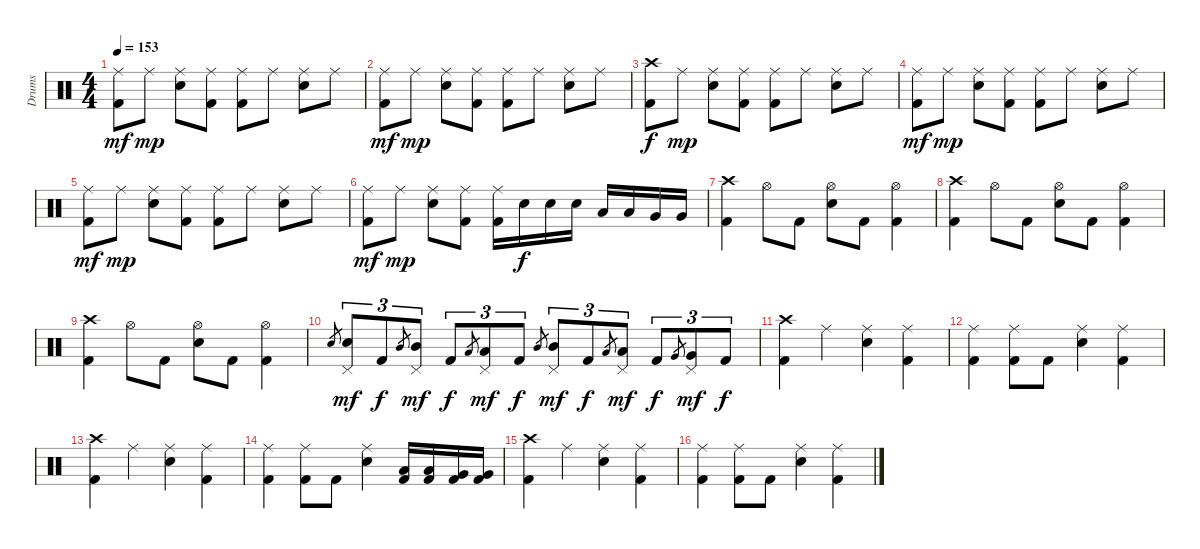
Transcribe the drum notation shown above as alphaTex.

\track ("Drums" "Drums") {instrument percussion}
\staff {score}
\articulation defaults
\ts (4 4)
\tempo 153
\clef neutral
\ks c
("Ride (middle)" "Kick (hit) 2").8{dy mf} "Ride (middle)".8{dy mp} ("Ride (middle)" "Electric Snare (hit)").8 ("Ride (middle)" "Kick (hit) 2").8 ("Ride (middle)" "Kick (hit) 2").8 "Ride (middle)".8 ("Ride (middle)" "Electric Snare (hit)").8 "Ride (middle)".8 |
("Ride (middle)" "Kick (hit) 2").8{dy mf} "Ride (middle)".8{dy mp} ("Ride (middle)" "Electric Snare (hit)").8 ("Ride (middle)" "Kick (hit) 2").8 ("Ride (middle)" "Kick (hit) 2").8 "Ride (middle)".8 ("Ride (middle)" "Electric Snare (hit)").8 "Ride (middle)".8 |
("Crash high (hit)" "Kick (hit) 2").8{dy f} "Ride (middle)".8{dy mp} ("Ride (middle)" "Electric Snare (hit)").8 ("Ride (middle)" "Kick (hit) 2").8 ("Ride (middle)" "Kick (hit) 2").8 "Ride (middle)".8 ("Ride (middle)" "Electric Snare (hit)").8 "Ride (middle)".8 |
("Ride (middle)" "Kick (hit) 2").8{dy mf} "Ride (middle)".8{dy mp} ("Ride (middle)" "Electric Snare (hit)").8 ("Ride (middle)" "Kick (hit) 2").8 ("Ride (middle)" "Kick (hit) 2").8 "Ride (middle)".8 ("Ride (middle)" "Electric Snare (hit)").8 "Ride (middle)".8 |
("Ride (middle)" "Kick (hit) 2").8{dy mf} "Ride (middle)".8{dy mp} ("Ride (middle)" "Electric Snare (hit)").8 ("Ride (middle)" "Kick (hit) 2").8 ("Ride (middle)" "Kick (hit) 2").8 "Ride (middle)".8 ("Ride (middle)" "Electric Snare (hit)").8 "Ride (middle)".8 |
("Ride (middle)" "Kick (hit) 2").8{dy mf} "Ride (middle)".8{dy mp} ("Ride (middle)" "Electric Snare (hit)").8 ("Ride (middle)" "Kick (hit) 2").8 ("Ride (middle)" "Kick (hit) 2").16 "Electric Snare (hit)".16{dy f} "Electric Snare (hit)".16 "Electric Snare (hit)".16 "Low Tom (hit)".16 "Low Tom (hit)".16 "Very Low Tom (hit)".16 "Very Low Tom (hit)".16 |
("Crash high (hit)" "Kick (hit) 2").4 "Hi-Hat (open)".8 "Kick (hit) 2".8 ("Hi-Hat (open)" "Electric Snare (hit)").8 "Kick (hit) 2".8 ("Hi-Hat (open)" "Kick (hit) 2").4 |
("Crash high (hit)" "Kick (hit) 2").4 "Hi-Hat (open)".8 "Kick (hit) 2".8 ("Hi-Hat (open)" "Electric Snare (hit)").8 "Kick (hit) 2".8 ("Hi-Hat (open)" "Kick (hit) 2").4 |
("Crash high (hit)" "Kick (hit) 2").4 "Hi-Hat (open)".8 "Kick (hit) 2".8 ("Hi-Hat (open)" "Electric Snare (hit)").8 "Kick (hit) 2".8 ("Hi-Hat (open)" "Kick (hit) 2").4 |
"Electric Snare (hit)".8{gr} ("Pedal Hi-Hat (hit)" "Electric Snare (hit)").8{tu (3 2) dy mf} "Kick (hit) 2".8{tu (3 2) dy f} "Mid Tom (hit)".8{gr} ("Pedal Hi-Hat (hit)" "Mid Tom (hit)").8{tu (3 2) dy mf} "Kick (hit) 2".8{tu (3 2) dy f} "Low Tom (hit)".8{gr} ("Pedal Hi-Hat (hit)" "Low Tom (hit)").8{tu (3 2) dy mf} "Kick (hit) 2".8{tu (3 2) dy f} "Mid Tom (hit)".8{gr} ("Pedal Hi-Hat (hit)" "Mid Tom (hit)").8{tu (3 2) dy mf} "Kick (hit) 2".8{tu (3 2) dy f} "Low Tom (hit)".8{gr} ("Pedal Hi-Hat (hit)" "Low Tom (hit)").8{tu (3 2) dy mf} "Kick (hit) 2".8{tu (3 2) dy f} "Very Low Tom (hit)".8{gr} ("Pedal Hi-Hat (hit)" "Very Low Tom (hit)").8{tu (3 2) dy mf} "Kick (hit) 2".8{tu (3 2) dy f} |
("Crash high (hit)" "Kick (hit) 2").4 "Ride (middle)".4 ("Ride (middle)" "Electric Snare (hit)").4 ("Ride (middle)" "Kick (hit) 2").4 |
("Ride (middle)" "Kick (hit) 2").4 ("Ride (middle)" "Kick (hit) 2").8 "Kick (hit) 2".8 ("Ride (middle)" "Electric Snare (hit)").4 ("Ride (middle)" "Kick (hit) 2").4 |
("Crash high (hit)" "Kick (hit) 2").4 "Ride (middle)".4 ("Ride (middle)" "Electric Snare (hit)").4 ("Ride (middle)" "Kick (hit) 2").4 |
("Ride (middle)" "Kick (hit) 2").4 ("Ride (middle)" "Kick (hit) 2").8 "Kick (hit) 2".8 ("Ride (middle)" "Electric Snare (hit)").4 ("Low Tom (hit)" "Kick (hit) 2").16 ("Low Tom (hit)" "Kick (hit) 2").16 ("Very Low Tom (hit)" "Kick (hit) 2").16 ("Very Low Tom (hit)" "Kick (hit) 2").16 |
("Crash high (hit)" "Kick (hit) 2").4 "Ride (middle)".4 ("Ride (middle)" "Electric Snare (hit)").4 ("Ride (middle)" "Kick (hit) 2").4 |
("Ride (middle)" "Kick (hit) 2").4 ("Ride (middle)" "Kick (hit) 2").8 "Kick (hit) 2".8 ("Ride (middle)" "Electric Snare (hit)").4 ("Ride (middle)" "Kick (hit) 2").4
